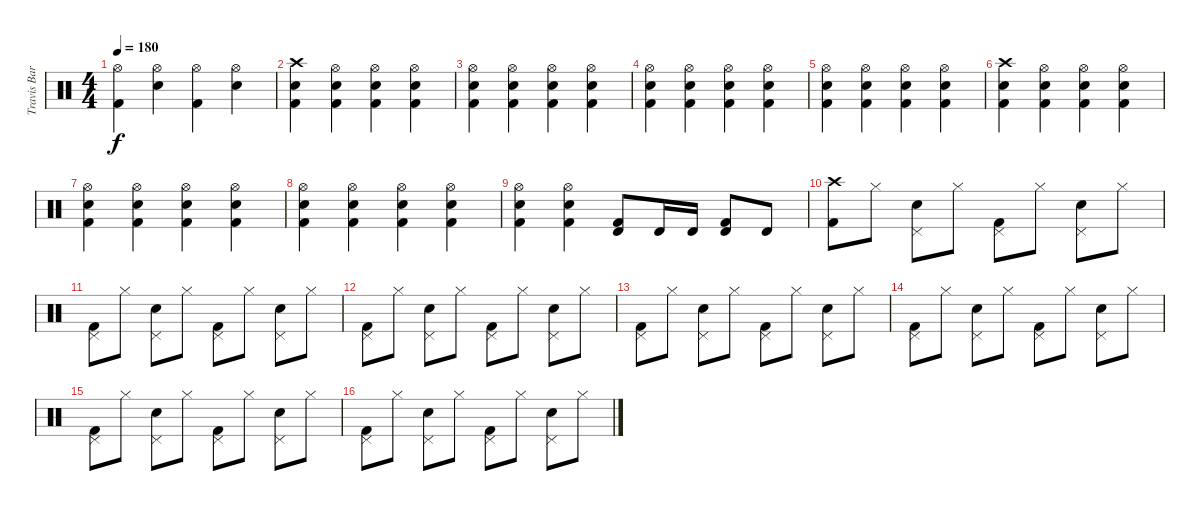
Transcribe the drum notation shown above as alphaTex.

\track ("Travis Barker" "Travis Bar") {instrument percussion}
\staff {score}
\articulation defaults
\ts (4 4)
\tempo 180
\clef neutral
\ks c
("Hi-Hat (open)" "Kick (hit) 2").4{dy f} ("Hi-Hat (open)" "Electric Snare (hit)").4 ("Hi-Hat (open)" "Kick (hit) 2").4 ("Hi-Hat (open)" "Electric Snare (hit)").4 |
("Crash high (hit)" "Electric Snare (hit)" "Kick (hit) 2").4 ("Hi-Hat (open)" "Electric Snare (hit)" "Kick (hit) 2").4 ("Hi-Hat (open)" "Electric Snare (hit)" "Kick (hit) 2").4 ("Hi-Hat (open)" "Electric Snare (hit)" "Kick (hit) 2").4 |
("Hi-Hat (open)" "Electric Snare (hit)" "Kick (hit) 2").4 ("Hi-Hat (open)" "Electric Snare (hit)" "Kick (hit) 2").4 ("Hi-Hat (open)" "Electric Snare (hit)" "Kick (hit) 2").4 ("Hi-Hat (open)" "Electric Snare (hit)" "Kick (hit) 2").4 |
("Hi-Hat (open)" "Electric Snare (hit)" "Kick (hit) 2").4 ("Hi-Hat (open)" "Electric Snare (hit)" "Kick (hit) 2").4 ("Hi-Hat (open)" "Electric Snare (hit)" "Kick (hit) 2").4 ("Hi-Hat (open)" "Electric Snare (hit)" "Kick (hit) 2").4 |
("Hi-Hat (open)" "Electric Snare (hit)" "Kick (hit) 2").4 ("Hi-Hat (open)" "Electric Snare (hit)" "Kick (hit) 2").4 ("Hi-Hat (open)" "Electric Snare (hit)" "Kick (hit) 2").4 ("Hi-Hat (open)" "Electric Snare (hit)" "Kick (hit) 2").4 |
("Crash high (hit)" "Electric Snare (hit)" "Kick (hit) 2").4 ("Hi-Hat (open)" "Electric Snare (hit)" "Kick (hit) 2").4 ("Hi-Hat (open)" "Electric Snare (hit)" "Kick (hit) 2").4 ("Hi-Hat (open)" "Electric Snare (hit)" "Kick (hit) 2").4 |
("Hi-Hat (open)" "Electric Snare (hit)" "Kick (hit) 2").4 ("Hi-Hat (open)" "Electric Snare (hit)" "Kick (hit) 2").4 ("Hi-Hat (open)" "Electric Snare (hit)" "Kick (hit) 2").4 ("Hi-Hat (open)" "Electric Snare (hit)" "Kick (hit) 2").4 |
("Hi-Hat (open)" "Electric Snare (hit)" "Kick (hit) 2").4 ("Hi-Hat (open)" "Electric Snare (hit)" "Kick (hit) 2").4 ("Hi-Hat (open)" "Electric Snare (hit)" "Kick (hit) 2").4 ("Hi-Hat (open)" "Electric Snare (hit)" "Kick (hit) 2").4 |
("Hi-Hat (open)" "Electric Snare (hit)" "Kick (hit) 2").4 ("Hi-Hat (open)" "Electric Snare (hit)" "Kick (hit) 2").4 ("Timbale high (hit)" "Kick (hit) 2").8 "Timbale high (hit)".16 "Timbale high (hit)".16 ("Timbale high (hit)" "Kick (hit) 2").8 "Timbale high (hit)".8 |
("Crash high (hit)" "Kick (hit) 2").8 "Hi-Hat (closed)".8 ("Pedal Hi-Hat (hit)" "Electric Snare (hit)").8 "Hi-Hat (closed)".8 ("Pedal Hi-Hat (hit)" "Kick (hit) 2").8 "Hi-Hat (closed)".8 ("Pedal Hi-Hat (hit)" "Electric Snare (hit)").8 "Hi-Hat (closed)".8 |
("Pedal Hi-Hat (hit)" "Kick (hit) 2").8 "Hi-Hat (closed)".8 ("Pedal Hi-Hat (hit)" "Electric Snare (hit)").8 "Hi-Hat (closed)".8 ("Pedal Hi-Hat (hit)" "Kick (hit) 2").8 "Hi-Hat (closed)".8 ("Pedal Hi-Hat (hit)" "Electric Snare (hit)").8 "Hi-Hat (closed)".8 |
("Pedal Hi-Hat (hit)" "Kick (hit) 2").8 "Hi-Hat (closed)".8 ("Pedal Hi-Hat (hit)" "Electric Snare (hit)").8 "Hi-Hat (closed)".8 ("Pedal Hi-Hat (hit)" "Kick (hit) 2").8 "Hi-Hat (closed)".8 ("Pedal Hi-Hat (hit)" "Electric Snare (hit)").8 "Hi-Hat (closed)".8 |
("Pedal Hi-Hat (hit)" "Kick (hit) 2").8 "Hi-Hat (closed)".8 ("Pedal Hi-Hat (hit)" "Electric Snare (hit)").8 "Hi-Hat (closed)".8 ("Pedal Hi-Hat (hit)" "Kick (hit) 2").8 "Hi-Hat (closed)".8 ("Pedal Hi-Hat (hit)" "Electric Snare (hit)").8 "Hi-Hat (closed)".8 |
("Pedal Hi-Hat (hit)" "Kick (hit) 2").8 "Hi-Hat (closed)".8 ("Pedal Hi-Hat (hit)" "Electric Snare (hit)").8 "Hi-Hat (closed)".8 ("Pedal Hi-Hat (hit)" "Kick (hit) 2").8 "Hi-Hat (closed)".8 ("Pedal Hi-Hat (hit)" "Electric Snare (hit)").8 "Hi-Hat (closed)".8 |
("Pedal Hi-Hat (hit)" "Kick (hit) 2").8 "Hi-Hat (closed)".8 ("Pedal Hi-Hat (hit)" "Electric Snare (hit)").8 "Hi-Hat (closed)".8 ("Pedal Hi-Hat (hit)" "Kick (hit) 2").8 "Hi-Hat (closed)".8 ("Pedal Hi-Hat (hit)" "Electric Snare (hit)").8 "Hi-Hat (closed)".8 |
("Pedal Hi-Hat (hit)" "Kick (hit) 2").8 "Hi-Hat (closed)".8 ("Pedal Hi-Hat (hit)" "Electric Snare (hit)").8 "Hi-Hat (closed)".8 ("Pedal Hi-Hat (hit)" "Kick (hit) 2").8 "Hi-Hat (closed)".8 ("Pedal Hi-Hat (hit)" "Electric Snare (hit)").8 "Hi-Hat (closed)".8
